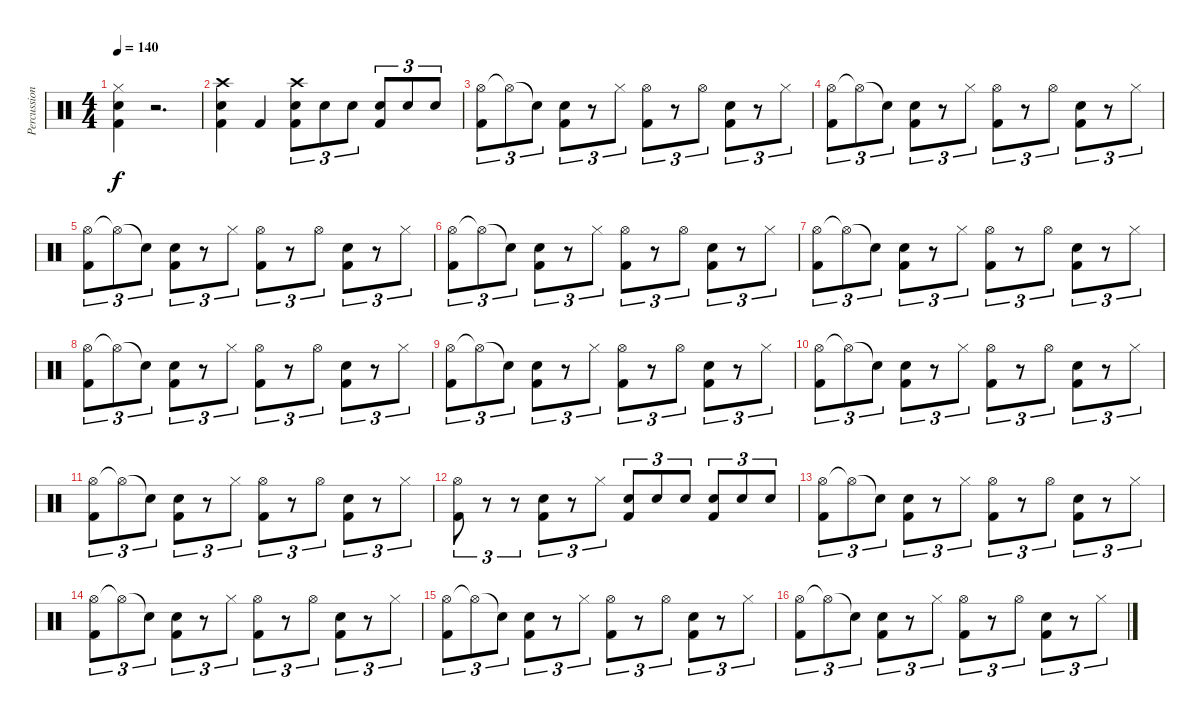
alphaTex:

\track ("Percussion" "Percussion") {instrument percussion}
\staff {score}
\articulation defaults
\ts (4 4)
\tempo 140
\clef neutral
\ks c
("Hi-Hat (closed)" "Snare (hit) 2" "Kick (hit) 2").4{dy f} r.2{d} |
("Crash high (hit)" "Snare (hit) 2" "Kick (hit) 2").4 "Kick (hit) 2".4 ("Crash high (hit)" "Snare (hit) 2" "Kick (hit) 2").8{tu (3 2)} "Snare (hit) 2".8{tu (3 2)} "Snare (hit) 2".8{tu (3 2)} ("Snare (hit) 2" "Kick (hit) 2").8{tu (3 2)} "Snare (hit) 2".8{tu (3 2)} "Snare (hit) 2".8{tu (3 2)} |
("Hi-Hat (open)" "Kick (hit) 2").8{tu (3 2)} "Hi-Hat (open)"{t}.8{tu (3 2)} "Snare (hit)"{t}.8{tu (3 2)} ("Snare (hit) 2" "Kick (hit) 2").8{tu (3 2)} r.8{tu (3 2)} "Hi-Hat (closed)".8{tu (3 2)} ("Hi-Hat (open)" "Kick (hit) 2").8{tu (3 2)} r.8{tu (3 2)} "Hi-Hat (open)".8{tu (3 2)} ("Snare (hit) 2" "Kick (hit) 2").8{tu (3 2)} r.8{tu (3 2)} "Hi-Hat (closed)".8{tu (3 2)} |
("Hi-Hat (open)" "Kick (hit) 2").8{tu (3 2)} "Hi-Hat (open)"{t}.8{tu (3 2)} "Snare (hit)"{t}.8{tu (3 2)} ("Snare (hit) 2" "Kick (hit) 2").8{tu (3 2)} r.8{tu (3 2)} "Hi-Hat (closed)".8{tu (3 2)} ("Hi-Hat (open)" "Kick (hit) 2").8{tu (3 2)} r.8{tu (3 2)} "Hi-Hat (open)".8{tu (3 2)} ("Snare (hit) 2" "Kick (hit) 2").8{tu (3 2)} r.8{tu (3 2)} "Hi-Hat (closed)".8{tu (3 2)} |
("Hi-Hat (open)" "Kick (hit) 2").8{tu (3 2)} "Hi-Hat (open)"{t}.8{tu (3 2)} "Snare (hit)"{t}.8{tu (3 2)} ("Snare (hit) 2" "Kick (hit) 2").8{tu (3 2)} r.8{tu (3 2)} "Hi-Hat (closed)".8{tu (3 2)} ("Hi-Hat (open)" "Kick (hit) 2").8{tu (3 2)} r.8{tu (3 2)} "Hi-Hat (open)".8{tu (3 2)} ("Snare (hit) 2" "Kick (hit) 2").8{tu (3 2)} r.8{tu (3 2)} "Hi-Hat (closed)".8{tu (3 2)} |
("Hi-Hat (open)" "Kick (hit) 2").8{tu (3 2)} "Hi-Hat (open)"{t}.8{tu (3 2)} "Snare (hit)"{t}.8{tu (3 2)} ("Snare (hit) 2" "Kick (hit) 2").8{tu (3 2)} r.8{tu (3 2)} "Hi-Hat (closed)".8{tu (3 2)} ("Hi-Hat (open)" "Kick (hit) 2").8{tu (3 2)} r.8{tu (3 2)} "Hi-Hat (open)".8{tu (3 2)} ("Snare (hit) 2" "Kick (hit) 2").8{tu (3 2)} r.8{tu (3 2)} "Hi-Hat (closed)".8{tu (3 2)} |
("Hi-Hat (open)" "Kick (hit) 2").8{tu (3 2)} "Hi-Hat (open)"{t}.8{tu (3 2)} "Snare (hit)"{t}.8{tu (3 2)} ("Snare (hit) 2" "Kick (hit) 2").8{tu (3 2)} r.8{tu (3 2)} "Hi-Hat (closed)".8{tu (3 2)} ("Hi-Hat (open)" "Kick (hit) 2").8{tu (3 2)} r.8{tu (3 2)} "Hi-Hat (open)".8{tu (3 2)} ("Snare (hit) 2" "Kick (hit) 2").8{tu (3 2)} r.8{tu (3 2)} "Hi-Hat (closed)".8{tu (3 2)} |
("Hi-Hat (open)" "Kick (hit) 2").8{tu (3 2)} "Hi-Hat (open)"{t}.8{tu (3 2)} "Snare (hit)"{t}.8{tu (3 2)} ("Snare (hit) 2" "Kick (hit) 2").8{tu (3 2)} r.8{tu (3 2)} "Hi-Hat (closed)".8{tu (3 2)} ("Hi-Hat (open)" "Kick (hit) 2").8{tu (3 2)} r.8{tu (3 2)} "Hi-Hat (open)".8{tu (3 2)} ("Snare (hit) 2" "Kick (hit) 2").8{tu (3 2)} r.8{tu (3 2)} "Hi-Hat (closed)".8{tu (3 2)} |
("Hi-Hat (open)" "Kick (hit) 2").8{tu (3 2)} "Hi-Hat (open)"{t}.8{tu (3 2)} "Snare (hit)"{t}.8{tu (3 2)} ("Snare (hit) 2" "Kick (hit) 2").8{tu (3 2)} r.8{tu (3 2)} "Hi-Hat (closed)".8{tu (3 2)} ("Hi-Hat (open)" "Kick (hit) 2").8{tu (3 2)} r.8{tu (3 2)} "Hi-Hat (open)".8{tu (3 2)} ("Snare (hit) 2" "Kick (hit) 2").8{tu (3 2)} r.8{tu (3 2)} "Hi-Hat (closed)".8{tu (3 2)} |
("Hi-Hat (open)" "Kick (hit) 2").8{tu (3 2)} "Hi-Hat (open)"{t}.8{tu (3 2)} "Snare (hit)"{t}.8{tu (3 2)} ("Snare (hit) 2" "Kick (hit) 2").8{tu (3 2)} r.8{tu (3 2)} "Hi-Hat (closed)".8{tu (3 2)} ("Hi-Hat (open)" "Kick (hit) 2").8{tu (3 2)} r.8{tu (3 2)} "Hi-Hat (open)".8{tu (3 2)} ("Snare (hit) 2" "Kick (hit) 2").8{tu (3 2)} r.8{tu (3 2)} "Hi-Hat (closed)".8{tu (3 2)} |
("Hi-Hat (open)" "Kick (hit) 2").8{tu (3 2)} "Hi-Hat (open)"{t}.8{tu (3 2)} "Snare (hit)"{t}.8{tu (3 2)} ("Snare (hit) 2" "Kick (hit) 2").8{tu (3 2)} r.8{tu (3 2)} "Hi-Hat (closed)".8{tu (3 2)} ("Hi-Hat (open)" "Kick (hit) 2").8{tu (3 2)} r.8{tu (3 2)} "Hi-Hat (open)".8{tu (3 2)} ("Snare (hit) 2" "Kick (hit) 2").8{tu (3 2)} r.8{tu (3 2)} "Hi-Hat (closed)".8{tu (3 2)} |
("Hi-Hat (open)" "Kick (hit) 2").8{tu (3 2)} r.8{tu (3 2)} r.8{tu (3 2)} ("Snare (hit) 2" "Kick (hit) 2").8{tu (3 2)} r.8{tu (3 2)} "Hi-Hat (closed)".8{tu (3 2)} ("Snare (hit) 2" "Kick (hit) 2").8{tu (3 2)} "Snare (hit) 2".8{tu (3 2)} "Snare (hit) 2".8{tu (3 2)} ("Snare (hit) 2" "Kick (hit) 2").8{tu (3 2)} "Snare (hit) 2".8{tu (3 2)} "Snare (hit) 2".8{tu (3 2)} |
("Hi-Hat (open)" "Kick (hit) 2").8{tu (3 2)} "Hi-Hat (open)"{t}.8{tu (3 2)} "Snare (hit)"{t}.8{tu (3 2)} ("Snare (hit) 2" "Kick (hit) 2").8{tu (3 2)} r.8{tu (3 2)} "Hi-Hat (closed)".8{tu (3 2)} ("Hi-Hat (open)" "Kick (hit) 2").8{tu (3 2)} r.8{tu (3 2)} "Hi-Hat (open)".8{tu (3 2)} ("Snare (hit) 2" "Kick (hit) 2").8{tu (3 2)} r.8{tu (3 2)} "Hi-Hat (closed)".8{tu (3 2)} |
("Hi-Hat (open)" "Kick (hit) 2").8{tu (3 2)} "Hi-Hat (open)"{t}.8{tu (3 2)} "Snare (hit)"{t}.8{tu (3 2)} ("Snare (hit) 2" "Kick (hit) 2").8{tu (3 2)} r.8{tu (3 2)} "Hi-Hat (closed)".8{tu (3 2)} ("Hi-Hat (open)" "Kick (hit) 2").8{tu (3 2)} r.8{tu (3 2)} "Hi-Hat (open)".8{tu (3 2)} ("Snare (hit) 2" "Kick (hit) 2").8{tu (3 2)} r.8{tu (3 2)} "Hi-Hat (closed)".8{tu (3 2)} |
("Hi-Hat (open)" "Kick (hit) 2").8{tu (3 2)} "Hi-Hat (open)"{t}.8{tu (3 2)} "Snare (hit)"{t}.8{tu (3 2)} ("Snare (hit) 2" "Kick (hit) 2").8{tu (3 2)} r.8{tu (3 2)} "Hi-Hat (closed)".8{tu (3 2)} ("Hi-Hat (open)" "Kick (hit) 2").8{tu (3 2)} r.8{tu (3 2)} "Hi-Hat (open)".8{tu (3 2)} ("Snare (hit) 2" "Kick (hit) 2").8{tu (3 2)} r.8{tu (3 2)} "Hi-Hat (closed)".8{tu (3 2)} |
("Hi-Hat (open)" "Kick (hit) 2").8{tu (3 2)} "Hi-Hat (open)"{t}.8{tu (3 2)} "Snare (hit)"{t}.8{tu (3 2)} ("Snare (hit) 2" "Kick (hit) 2").8{tu (3 2)} r.8{tu (3 2)} "Hi-Hat (closed)".8{tu (3 2)} ("Hi-Hat (open)" "Kick (hit) 2").8{tu (3 2)} r.8{tu (3 2)} "Hi-Hat (open)".8{tu (3 2)} ("Snare (hit) 2" "Kick (hit) 2").8{tu (3 2)} r.8{tu (3 2)} "Hi-Hat (closed)".8{tu (3 2)}
